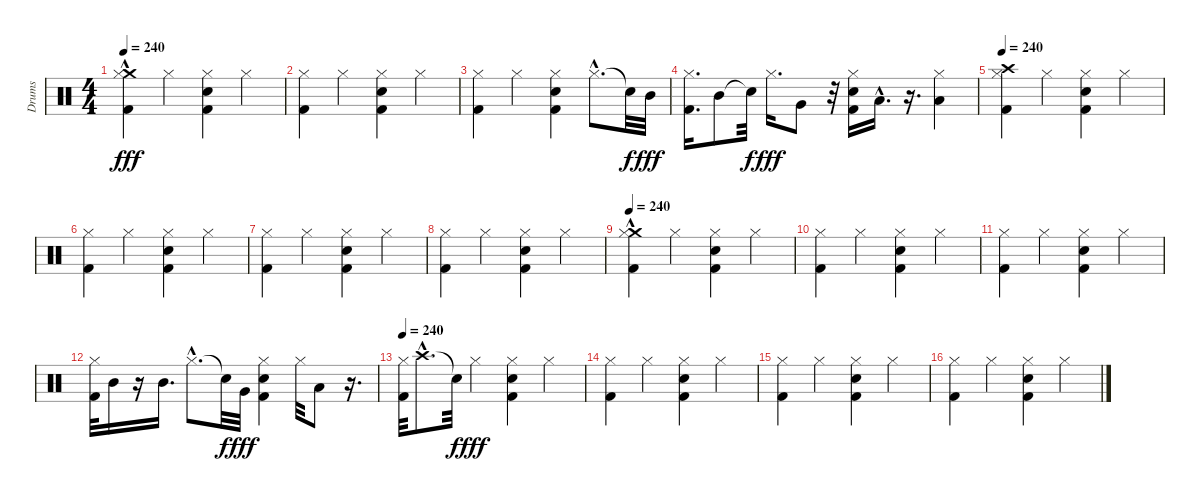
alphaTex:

\track ("Drums" "Drums") {instrument percussion}
\staff {score}
\articulation defaults
\ts (4 4)
\tempo 240
\clef neutral
\ks c
("Crash medium (hit)"{hac} "Hi-Hat (closed)" "Kick (hit) 2").4{dy fff} "Hi-Hat (closed)".4 ("Hi-Hat (closed)" "Kick (hit) 2" "Snare (hit) 2").4 "Hi-Hat (closed)".4 |
("Hi-Hat (closed)" "Kick (hit) 2").4 "Hi-Hat (closed)".4 ("Hi-Hat (closed)" "Kick (hit) 2" "Snare (hit) 2").4 "Hi-Hat (closed)".4 |
("Hi-Hat (closed)" "Kick (hit) 2").4 "Hi-Hat (closed)".4 ("Hi-Hat (closed)" "Snare (hit) 2" "Kick (hit) 2").4 "Hi-Hat (closed)"{hac}.8{d} "Snare (hit)"{t}.32{dy f} "Mid Tom (hit)".32{dy fff} |
("Hi-Hat (closed)" "Kick (hit) 2").16{d} "Mid Tom (hit)".8 "Snare (hit)"{t}.32{dy f} "Hi-Hat (closed)".16{d dy fff} "Very Low Tom (hit)".8 r.32 ("Hi-Hat (closed)" "Kick (hit) 2" "Snare (hit) 2").16 "Low Tom (hit)"{hac}.16{d} r.16{d} ("Hi-Hat (closed)" "Low Floor Tom (hit)").4 |
\tempo 240
("Hi-Hat (closed)" "Kick (hit) 2" "Crash high (hit)").4 "Hi-Hat (closed)".4 ("Hi-Hat (closed)" "Kick (hit) 2" "Snare (hit) 2").4 "Hi-Hat (closed)".4 |
("Hi-Hat (closed)" "Kick (hit) 2").4 "Hi-Hat (closed)".4 ("Hi-Hat (closed)" "Snare (hit) 2" "Kick (hit) 2").4 "Hi-Hat (closed)".4 |
("Hi-Hat (closed)" "Kick (hit) 2").4 "Hi-Hat (closed)".4 ("Hi-Hat (closed)" "Kick (hit) 2" "Snare (hit) 2").4 "Hi-Hat (closed)".4 |
("Hi-Hat (closed)" "Kick (hit) 2").4 "Hi-Hat (closed)".4 ("Hi-Hat (closed)" "Kick (hit) 2" "Snare (hit) 2").4 "Hi-Hat (closed)".4 |
\tempo 240
("Kick (hit) 2" "Crash medium (hit)"{hac} "Hi-Hat (closed)").4 "Hi-Hat (closed)".4 ("Kick (hit) 2" "Snare (hit) 2" "Hi-Hat (closed)").4 "Hi-Hat (closed)".4 |
("Kick (hit) 2" "Hi-Hat (closed)").4 "Hi-Hat (closed)".4 ("Kick (hit) 2" "Snare (hit) 2" "Hi-Hat (closed)").4 "Hi-Hat (closed)".4 |
("Kick (hit) 2" "Hi-Hat (closed)").4 "Hi-Hat (closed)".4 ("Snare (hit) 2" "Kick (hit) 2" "Hi-Hat (closed)").4 "Hi-Hat (closed)".4 |
("Kick (hit) 2" "Hi-Hat (closed)").32 "Mid Tom (hit)".16 r.16 "Mid Tom (hit)".16{d} "Hi-Hat (closed)"{hac}.8{d} "Snare (hit)"{t}.32{dy f} "Very Low Tom (hit)".32{dy fff} ("Kick (hit) 2" "Snare (hit) 2" "Hi-Hat (closed)").4 "Hi-Hat (closed)".32 "Low Floor Tom (hit)".8 r.16{d} |
\tempo 240
("Kick (hit) 2" "Hi-Hat (closed)").32 "Crash high (hit)"{hac}.8{d} "Snare (hit)"{t}.32{dy f} "Hi-Hat (closed)".4{dy fff} ("Kick (hit) 2" "Snare (hit) 2" "Hi-Hat (closed)").4 "Hi-Hat (closed)".4 |
("Kick (hit) 2" "Hi-Hat (closed)").4 "Hi-Hat (closed)".4 ("Snare (hit) 2" "Kick (hit) 2" "Hi-Hat (closed)").4 "Hi-Hat (closed)".4 |
("Kick (hit) 2" "Hi-Hat (closed)").4 "Hi-Hat (closed)".4 ("Kick (hit) 2" "Snare (hit) 2" "Hi-Hat (closed)").4 "Hi-Hat (closed)".4 |
("Kick (hit) 2" "Hi-Hat (closed)").4 "Hi-Hat (closed)".4 ("Kick (hit) 2" "Snare (hit) 2" "Hi-Hat (closed)").4 "Hi-Hat (closed)".4
